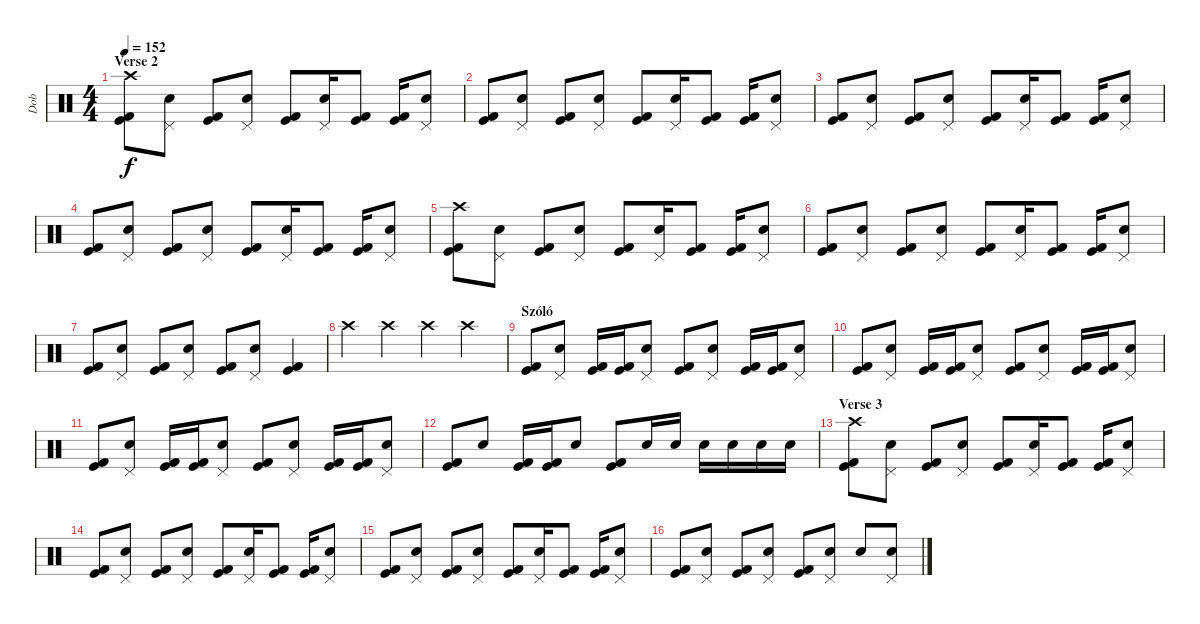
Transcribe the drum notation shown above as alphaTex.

\track ("Dob" "Dob") {instrument percussion}
\staff {score}
\articulation defaults
\ts (4 4)
\section ("" "Verse 2")
\tempo 152
\clef neutral
\ks c
("Crash high (hit)" "Kick (hit)" "Kick (hit) 2").8{dy f} ("Pedal Hi-Hat (hit)" "Electric Snare (hit)").8 ("Kick (hit)" "Kick (hit) 2").8 ("Pedal Hi-Hat (hit)" "Electric Snare (hit)").8 ("Kick (hit)" "Kick (hit) 2").8 ("Pedal Hi-Hat (hit)" "Electric Snare (hit)").16 ("Kick (hit)" "Kick (hit) 2").8 ("Kick (hit)" "Kick (hit) 2").16 ("Pedal Hi-Hat (hit)" "Electric Snare (hit)").8 |
("Kick (hit)" "Kick (hit) 2").8 ("Pedal Hi-Hat (hit)" "Electric Snare (hit)").8 ("Kick (hit)" "Kick (hit) 2").8 ("Pedal Hi-Hat (hit)" "Electric Snare (hit)").8 ("Kick (hit)" "Kick (hit) 2").8 ("Pedal Hi-Hat (hit)" "Electric Snare (hit)").16 ("Kick (hit)" "Kick (hit) 2").8 ("Kick (hit)" "Kick (hit) 2").16 ("Pedal Hi-Hat (hit)" "Electric Snare (hit)").8 |
("Kick (hit)" "Kick (hit) 2").8 ("Pedal Hi-Hat (hit)" "Electric Snare (hit)").8 ("Kick (hit)" "Kick (hit) 2").8 ("Pedal Hi-Hat (hit)" "Electric Snare (hit)").8 ("Kick (hit)" "Kick (hit) 2").8 ("Pedal Hi-Hat (hit)" "Electric Snare (hit)").16 ("Kick (hit)" "Kick (hit) 2").8 ("Kick (hit)" "Kick (hit) 2").16 ("Pedal Hi-Hat (hit)" "Electric Snare (hit)").8 |
("Kick (hit)" "Kick (hit) 2").8 ("Pedal Hi-Hat (hit)" "Electric Snare (hit)").8 ("Kick (hit)" "Kick (hit) 2").8 ("Pedal Hi-Hat (hit)" "Electric Snare (hit)").8 ("Kick (hit)" "Kick (hit) 2").8 ("Pedal Hi-Hat (hit)" "Electric Snare (hit)").16 ("Kick (hit)" "Kick (hit) 2").8 ("Kick (hit)" "Kick (hit) 2").16 ("Pedal Hi-Hat (hit)" "Electric Snare (hit)").8 |
("Crash high (hit)" "Kick (hit)" "Kick (hit) 2").8 ("Pedal Hi-Hat (hit)" "Electric Snare (hit)").8 ("Kick (hit)" "Kick (hit) 2").8 ("Pedal Hi-Hat (hit)" "Electric Snare (hit)").8 ("Kick (hit)" "Kick (hit) 2").8 ("Pedal Hi-Hat (hit)" "Electric Snare (hit)").16 ("Kick (hit)" "Kick (hit) 2").8 ("Kick (hit)" "Kick (hit) 2").16 ("Pedal Hi-Hat (hit)" "Electric Snare (hit)").8 |
("Kick (hit)" "Kick (hit) 2").8 ("Pedal Hi-Hat (hit)" "Electric Snare (hit)").8 ("Kick (hit)" "Kick (hit) 2").8 ("Pedal Hi-Hat (hit)" "Electric Snare (hit)").8 ("Kick (hit)" "Kick (hit) 2").8 ("Pedal Hi-Hat (hit)" "Electric Snare (hit)").16 ("Kick (hit)" "Kick (hit) 2").8 ("Kick (hit)" "Kick (hit) 2").16 ("Pedal Hi-Hat (hit)" "Electric Snare (hit)").8 |
("Kick (hit)" "Kick (hit) 2").8 ("Pedal Hi-Hat (hit)" "Electric Snare (hit)").8 ("Kick (hit)" "Kick (hit) 2").8 ("Pedal Hi-Hat (hit)" "Electric Snare (hit)").8 ("Kick (hit)" "Kick (hit) 2").8 ("Pedal Hi-Hat (hit)" "Electric Snare (hit)").8 ("Kick (hit)" "Kick (hit) 2").4 |
"Crash high (hit)".4 "Crash high (hit)".4 "Crash high (hit)".4 "Crash high (hit)".4 |
\section ("" "Szóló")
("Kick (hit)" "Kick (hit) 2").8 ("Pedal Hi-Hat (hit)" "Electric Snare (hit)").8 ("Kick (hit)" "Kick (hit) 2").16 ("Kick (hit)" "Kick (hit) 2").16 ("Pedal Hi-Hat (hit)" "Electric Snare (hit)").8 ("Kick (hit)" "Kick (hit) 2").8 ("Pedal Hi-Hat (hit)" "Electric Snare (hit)").8 ("Kick (hit)" "Kick (hit) 2").16 ("Kick (hit)" "Kick (hit) 2").16 ("Pedal Hi-Hat (hit)" "Electric Snare (hit)").8 |
("Kick (hit)" "Kick (hit) 2").8 ("Pedal Hi-Hat (hit)" "Electric Snare (hit)").8 ("Kick (hit)" "Kick (hit) 2").16 ("Kick (hit)" "Kick (hit) 2").16 ("Pedal Hi-Hat (hit)" "Electric Snare (hit)").8 ("Kick (hit)" "Kick (hit) 2").8 ("Pedal Hi-Hat (hit)" "Electric Snare (hit)").8 ("Kick (hit)" "Kick (hit) 2").16 ("Kick (hit)" "Kick (hit) 2").16 ("Pedal Hi-Hat (hit)" "Electric Snare (hit)").8 |
("Kick (hit)" "Kick (hit) 2").8 ("Pedal Hi-Hat (hit)" "Electric Snare (hit)").8 ("Kick (hit)" "Kick (hit) 2").16 ("Kick (hit)" "Kick (hit) 2").16 ("Pedal Hi-Hat (hit)" "Electric Snare (hit)").8 ("Kick (hit)" "Kick (hit) 2").8 ("Pedal Hi-Hat (hit)" "Electric Snare (hit)").8 ("Kick (hit)" "Kick (hit) 2").16 ("Kick (hit)" "Kick (hit) 2").16 ("Pedal Hi-Hat (hit)" "Electric Snare (hit)").8 |
("Kick (hit)" "Kick (hit) 2").8 "Electric Snare (hit)".8 ("Kick (hit)" "Kick (hit) 2").16 ("Kick (hit)" "Kick (hit) 2").16 "Electric Snare (hit)".8 ("Kick (hit)" "Kick (hit) 2").8 "Electric Snare (hit)".16 "Electric Snare (hit)".16 "Electric Snare (hit)".16 "Electric Snare (hit)".16 "Electric Snare (hit)".16 "Electric Snare (hit)".16 |
\section ("" "Verse 3")
("Crash high (hit)" "Kick (hit)" "Kick (hit) 2").8 ("Pedal Hi-Hat (hit)" "Electric Snare (hit)").8 ("Kick (hit)" "Kick (hit) 2").8 ("Pedal Hi-Hat (hit)" "Electric Snare (hit)").8 ("Kick (hit)" "Kick (hit) 2").8 ("Pedal Hi-Hat (hit)" "Electric Snare (hit)").16 ("Kick (hit)" "Kick (hit) 2").8 ("Kick (hit)" "Kick (hit) 2").16 ("Pedal Hi-Hat (hit)" "Electric Snare (hit)").8 |
("Kick (hit)" "Kick (hit) 2").8 ("Pedal Hi-Hat (hit)" "Electric Snare (hit)").8 ("Kick (hit)" "Kick (hit) 2").8 ("Pedal Hi-Hat (hit)" "Electric Snare (hit)").8 ("Kick (hit)" "Kick (hit) 2").8 ("Pedal Hi-Hat (hit)" "Electric Snare (hit)").16 ("Kick (hit)" "Kick (hit) 2").8 ("Kick (hit)" "Kick (hit) 2").16 ("Pedal Hi-Hat (hit)" "Electric Snare (hit)").8 |
("Kick (hit)" "Kick (hit) 2").8 ("Pedal Hi-Hat (hit)" "Electric Snare (hit)").8 ("Kick (hit)" "Kick (hit) 2").8 ("Pedal Hi-Hat (hit)" "Electric Snare (hit)").8 ("Kick (hit)" "Kick (hit) 2").8 ("Pedal Hi-Hat (hit)" "Electric Snare (hit)").16 ("Kick (hit)" "Kick (hit) 2").8 ("Kick (hit)" "Kick (hit) 2").16 ("Pedal Hi-Hat (hit)" "Electric Snare (hit)").8 |
("Kick (hit)" "Kick (hit) 2").8 ("Pedal Hi-Hat (hit)" "Electric Snare (hit)").8 ("Kick (hit)" "Kick (hit) 2").8 ("Pedal Hi-Hat (hit)" "Electric Snare (hit)").8 ("Kick (hit)" "Kick (hit) 2").8 ("Pedal Hi-Hat (hit)" "Electric Snare (hit)").8 "Electric Snare (hit)".8 ("Pedal Hi-Hat (hit)" "Electric Snare (hit)").8
